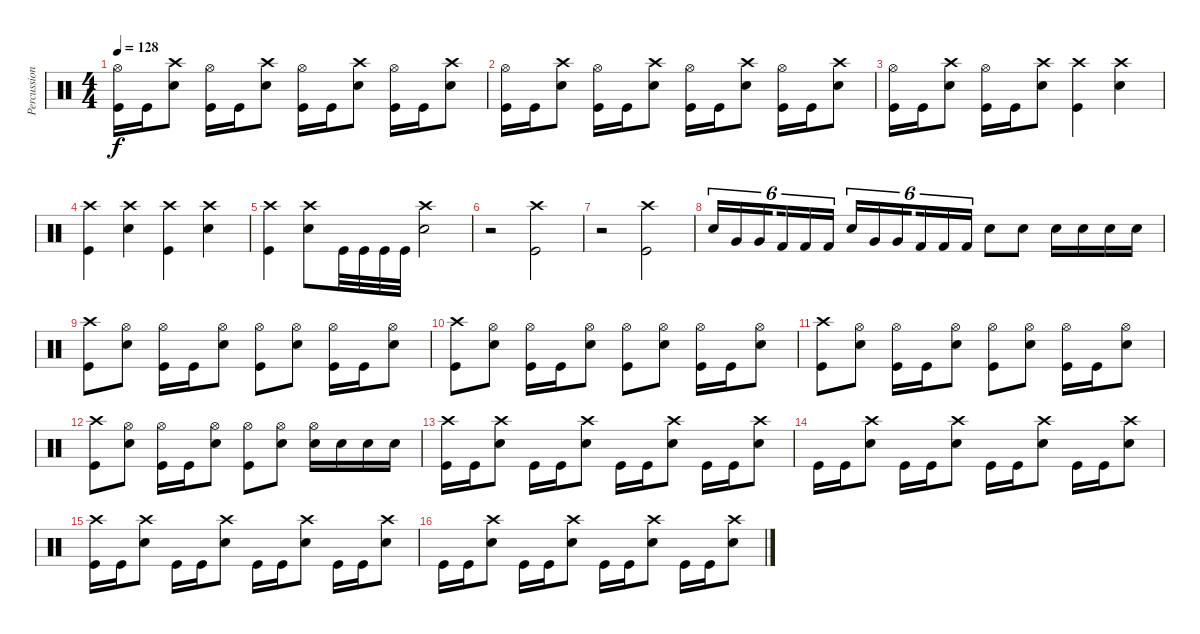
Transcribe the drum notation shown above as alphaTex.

\track ("Percussion" "Percussion") {instrument percussion}
\staff {score}
\articulation defaults
\ts (4 4)
\tempo 128
\clef neutral
\ks c
("Hi-Hat (open)" "Kick (hit)").16{dy f} "Kick (hit)".16 ("Crash high (hit)" "Electric Snare (hit)").8 ("Hi-Hat (open)" "Kick (hit)").16 "Kick (hit)".16 ("Crash high (hit)" "Electric Snare (hit)").8 ("Hi-Hat (open)" "Kick (hit)").16 "Kick (hit)".16 ("Crash high (hit)" "Electric Snare (hit)").8 ("Hi-Hat (open)" "Kick (hit)").16 "Kick (hit)".16 ("Crash high (hit)" "Electric Snare (hit)").8 |
("Hi-Hat (open)" "Kick (hit)").16 "Kick (hit)".16 ("Crash high (hit)" "Electric Snare (hit)").8 ("Hi-Hat (open)" "Kick (hit)").16 "Kick (hit)".16 ("Crash high (hit)" "Electric Snare (hit)").8 ("Hi-Hat (open)" "Kick (hit)").16 "Kick (hit)".16 ("Crash high (hit)" "Electric Snare (hit)").8 ("Hi-Hat (open)" "Kick (hit)").16 "Kick (hit)".16 ("Crash high (hit)" "Electric Snare (hit)").8 |
("Hi-Hat (open)" "Kick (hit)").16 "Kick (hit)".16 ("Crash high (hit)" "Electric Snare (hit)").8 ("Hi-Hat (open)" "Kick (hit)").16 "Kick (hit)".16 ("Crash high (hit)" "Electric Snare (hit)").8 ("Crash high (hit)" "Kick (hit)").4 ("Crash high (hit)" "Electric Snare (hit)").4 |
("Crash high (hit)" "Kick (hit)").4 ("Crash high (hit)" "Electric Snare (hit)").4 ("Crash high (hit)" "Kick (hit)").4 ("Crash high (hit)" "Electric Snare (hit)").4 |
("Crash high (hit)" "Kick (hit)").4 ("Crash high (hit)" "Electric Snare (hit)").8 "Kick (hit)".32 "Kick (hit)".32 "Kick (hit)".32 "Kick (hit)".32 ("Crash high (hit)" "Electric Snare (hit)").2 |
r.2 ("Crash high (hit)" "Kick (hit)").2 |
r.2 ("Crash high (hit)" "Kick (hit)").2 |
"Electric Snare (hit)".16{tu (6 4)} "Very Low Tom (hit)".16{tu (6 4)} "Very Low Tom (hit)".16{tu (6 4) beam splitsecondary} "Kick (hit) 2".16{tu (6 4)} "Kick (hit) 2".16{tu (6 4)} "Kick (hit) 2".16{tu (6 4)} "Electric Snare (hit)".16{tu (6 4)} "Very Low Tom (hit)".16{tu (6 4)} "Very Low Tom (hit)".16{tu (6 4) beam splitsecondary} "Kick (hit) 2".16{tu (6 4)} "Kick (hit) 2".16{tu (6 4)} "Kick (hit) 2".16{tu (6 4)} "Electric Snare (hit)".8 "Electric Snare (hit)".8 "Electric Snare (hit)".16 "Electric Snare (hit)".16 "Electric Snare (hit)".16 "Electric Snare (hit)".16 |
("Crash high (hit)" "Kick (hit)").8 ("Hi-Hat (open)" "Electric Snare (hit)").8 ("Hi-Hat (open)" "Kick (hit)").16 "Kick (hit)".16 ("Hi-Hat (open)" "Electric Snare (hit)").8 ("Hi-Hat (open)" "Kick (hit)").8 ("Hi-Hat (open)" "Electric Snare (hit)").8 ("Hi-Hat (open)" "Kick (hit)").16 "Kick (hit)".16 ("Hi-Hat (open)" "Electric Snare (hit)").8 |
("Crash high (hit)" "Kick (hit)").8 ("Hi-Hat (open)" "Electric Snare (hit)").8 ("Hi-Hat (open)" "Kick (hit)").16 "Kick (hit)".16 ("Hi-Hat (open)" "Electric Snare (hit)").8 ("Hi-Hat (open)" "Kick (hit)").8 ("Hi-Hat (open)" "Electric Snare (hit)").8 ("Hi-Hat (open)" "Kick (hit)").16 "Kick (hit)".16 ("Hi-Hat (open)" "Electric Snare (hit)").8 |
("Crash high (hit)" "Kick (hit)").8 ("Hi-Hat (open)" "Electric Snare (hit)").8 ("Hi-Hat (open)" "Kick (hit)").16 "Kick (hit)".16 ("Hi-Hat (open)" "Electric Snare (hit)").8 ("Hi-Hat (open)" "Kick (hit)").8 ("Hi-Hat (open)" "Electric Snare (hit)").8 ("Hi-Hat (open)" "Kick (hit)").16 "Kick (hit)".16 ("Hi-Hat (open)" "Electric Snare (hit)").8 |
("Crash high (hit)" "Kick (hit)").8 ("Hi-Hat (open)" "Electric Snare (hit)").8 ("Hi-Hat (open)" "Kick (hit)").16 "Kick (hit)".16 ("Hi-Hat (open)" "Electric Snare (hit)").8 ("Hi-Hat (open)" "Kick (hit)").8 ("Hi-Hat (open)" "Electric Snare (hit)").8 ("Hi-Hat (open)" "Electric Snare (hit)").16 "Electric Snare (hit)".16 "Electric Snare (hit)".16 "Electric Snare (hit)".16 |
("Crash high (hit)" "Kick (hit)").16 "Kick (hit)".16 ("Crash high (hit)" "Electric Snare (hit)").8 "Kick (hit)".16 "Kick (hit)".16 ("Crash high (hit)" "Electric Snare (hit)").8 "Kick (hit)".16 "Kick (hit)".16 ("Crash high (hit)" "Electric Snare (hit)").8 "Kick (hit)".16 "Kick (hit)".16 ("Crash high (hit)" "Electric Snare (hit)").8 |
"Kick (hit)".16 "Kick (hit)".16 ("Crash high (hit)" "Electric Snare (hit)").8 "Kick (hit)".16 "Kick (hit)".16 ("Crash high (hit)" "Electric Snare (hit)").8 "Kick (hit)".16 "Kick (hit)".16 ("Crash high (hit)" "Electric Snare (hit)").8 "Kick (hit)".16 "Kick (hit)".16 ("Crash high (hit)" "Electric Snare (hit)").8 |
("Crash high (hit)" "Kick (hit)").16 "Kick (hit)".16 ("Crash high (hit)" "Electric Snare (hit)").8 "Kick (hit)".16 "Kick (hit)".16 ("Crash high (hit)" "Electric Snare (hit)").8 "Kick (hit)".16 "Kick (hit)".16 ("Crash high (hit)" "Electric Snare (hit)").8 "Kick (hit)".16 "Kick (hit)".16 ("Crash high (hit)" "Electric Snare (hit)").8 |
"Kick (hit)".16 "Kick (hit)".16 ("Crash high (hit)" "Electric Snare (hit)").8 "Kick (hit)".16 "Kick (hit)".16 ("Crash high (hit)" "Electric Snare (hit)").8 "Kick (hit)".16 "Kick (hit)".16 ("Crash high (hit)" "Electric Snare (hit)").8 "Kick (hit)".16 "Kick (hit)".16 ("Crash high (hit)" "Electric Snare (hit)").8
